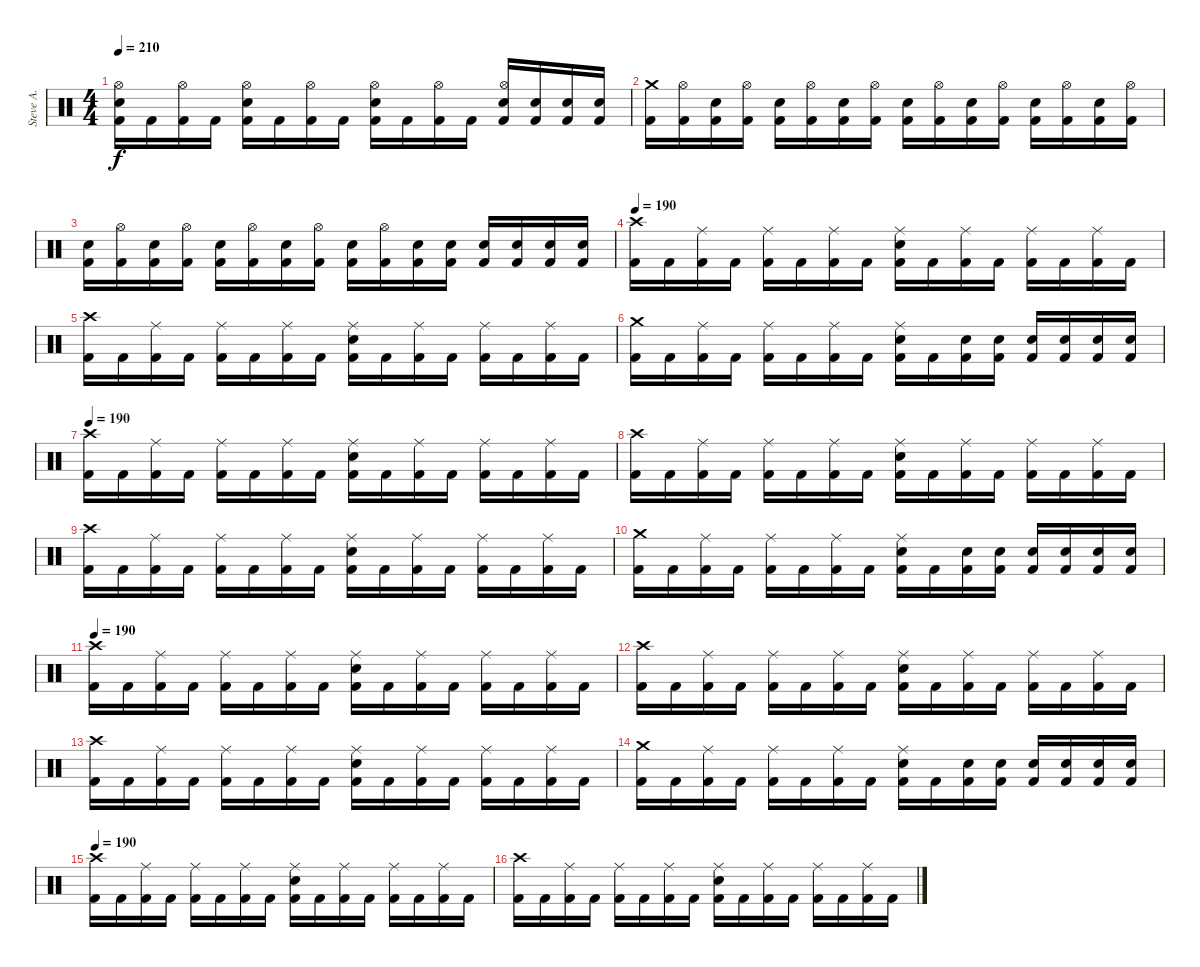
\track ("Steve A." "Steve A.") {instrument percussion}
\staff {score}
\articulation defaults
\ts (4 4)
\tempo 210
\clef neutral
\ks c
("Kick (hit) 2" "Hi-Hat (open)" "Electric Snare (hit)").16{dy f} "Kick (hit) 2".16 ("Kick (hit) 2" "Hi-Hat (open)").16 "Kick (hit) 2".16 ("Kick (hit) 2" "Hi-Hat (open)" "Electric Snare (hit)").16 "Kick (hit) 2".16 ("Kick (hit) 2" "Hi-Hat (open)").16 "Kick (hit) 2".16 ("Kick (hit) 2" "Hi-Hat (open)" "Electric Snare (hit)").16 "Kick (hit) 2".16 ("Kick (hit) 2" "Hi-Hat (open)").16 "Kick (hit) 2".16 ("Kick (hit) 2" "Hi-Hat (open)" "Electric Snare (hit)").16 ("Kick (hit) 2" "Electric Snare (hit)").16 ("Kick (hit) 2" "Electric Snare (hit)").16 ("Kick (hit) 2" "Electric Snare (hit)").16 |
("Kick (hit) 2" "Crash medium (hit)").16 ("Kick (hit) 2" "Hi-Hat (open)").16 ("Kick (hit) 2" "Electric Snare (hit)").16 ("Kick (hit) 2" "Hi-Hat (open)").16 ("Kick (hit) 2" "Electric Snare (hit)").16 ("Kick (hit) 2" "Hi-Hat (open)").16 ("Kick (hit) 2" "Electric Snare (hit)").16 ("Kick (hit) 2" "Hi-Hat (open)").16 ("Kick (hit) 2" "Electric Snare (hit)").16 ("Kick (hit) 2" "Hi-Hat (open)").16 ("Kick (hit) 2" "Electric Snare (hit)").16 ("Kick (hit) 2" "Hi-Hat (open)").16 ("Kick (hit) 2" "Electric Snare (hit)").16 ("Kick (hit) 2" "Hi-Hat (open)").16 ("Kick (hit) 2" "Electric Snare (hit)").16 ("Kick (hit) 2" "Hi-Hat (open)").16 |
("Kick (hit) 2" "Electric Snare (hit)").16 ("Kick (hit) 2" "Hi-Hat (open)").16 ("Kick (hit) 2" "Electric Snare (hit)").16 ("Kick (hit) 2" "Hi-Hat (open)").16 ("Kick (hit) 2" "Electric Snare (hit)").16 ("Kick (hit) 2" "Hi-Hat (open)").16 ("Kick (hit) 2" "Electric Snare (hit)").16 ("Kick (hit) 2" "Hi-Hat (open)").16 ("Kick (hit) 2" "Electric Snare (hit)").16 ("Kick (hit) 2" "Hi-Hat (open)").16 ("Kick (hit) 2" "Electric Snare (hit)").16 ("Kick (hit) 2" "Electric Snare (hit)").16 ("Kick (hit) 2" "Electric Snare (hit)").16 ("Kick (hit) 2" "Electric Snare (hit)").16 ("Kick (hit) 2" "Electric Snare (hit)").16 ("Kick (hit) 2" "Electric Snare (hit)").16 |
\tempo 190
("Kick (hit) 2" "Crash high (hit)").16 "Kick (hit) 2".16 ("Kick (hit) 2" "Ride (middle)").16 "Kick (hit) 2".16 ("Kick (hit) 2" "Ride (middle)").16 "Kick (hit) 2".16 ("Kick (hit) 2" "Ride (middle)").16 "Kick (hit) 2".16 ("Kick (hit) 2" "Ride (middle)" "Electric Snare (hit)").16 "Kick (hit) 2".16 ("Kick (hit) 2" "Ride (middle)").16 "Kick (hit) 2".16 ("Kick (hit) 2" "Ride (middle)").16 "Kick (hit) 2".16 ("Kick (hit) 2" "Ride (middle)").16 "Kick (hit) 2".16 |
("Kick (hit) 2" "Crash high (hit)").16 "Kick (hit) 2".16 ("Kick (hit) 2" "Ride (middle)").16 "Kick (hit) 2".16 ("Kick (hit) 2" "Ride (middle)").16 "Kick (hit) 2".16 ("Kick (hit) 2" "Ride (middle)").16 "Kick (hit) 2".16 ("Kick (hit) 2" "Ride (middle)" "Electric Snare (hit)").16 "Kick (hit) 2".16 ("Kick (hit) 2" "Ride (middle)").16 "Kick (hit) 2".16 ("Kick (hit) 2" "Ride (middle)").16 "Kick (hit) 2".16 ("Kick (hit) 2" "Ride (middle)").16 "Kick (hit) 2".16 |
("Kick (hit) 2" "Crash medium (hit)").16 "Kick (hit) 2".16 ("Kick (hit) 2" "Ride (middle)").16 "Kick (hit) 2".16 ("Kick (hit) 2" "Ride (middle)").16 "Kick (hit) 2".16 ("Kick (hit) 2" "Ride (middle)").16 "Kick (hit) 2".16 ("Kick (hit) 2" "Ride (middle)" "Electric Snare (hit)").16 "Kick (hit) 2".16 ("Kick (hit) 2" "Electric Snare (hit)").16 ("Kick (hit) 2" "Electric Snare (hit)").16 ("Kick (hit) 2" "Electric Snare (hit)").16 ("Kick (hit) 2" "Electric Snare (hit)").16 ("Kick (hit) 2" "Electric Snare (hit)").16 ("Kick (hit) 2" "Electric Snare (hit)").16 |
\tempo 190
("Kick (hit) 2" "Crash high (hit)").16 "Kick (hit) 2".16 ("Kick (hit) 2" "Ride (middle)").16 "Kick (hit) 2".16 ("Kick (hit) 2" "Ride (middle)").16 "Kick (hit) 2".16 ("Kick (hit) 2" "Ride (middle)").16 "Kick (hit) 2".16 ("Kick (hit) 2" "Ride (middle)" "Electric Snare (hit)").16 "Kick (hit) 2".16 ("Kick (hit) 2" "Ride (middle)").16 "Kick (hit) 2".16 ("Kick (hit) 2" "Ride (middle)").16 "Kick (hit) 2".16 ("Kick (hit) 2" "Ride (middle)").16 "Kick (hit) 2".16 |
("Kick (hit) 2" "Crash high (hit)").16 "Kick (hit) 2".16 ("Kick (hit) 2" "Ride (middle)").16 "Kick (hit) 2".16 ("Kick (hit) 2" "Ride (middle)").16 "Kick (hit) 2".16 ("Kick (hit) 2" "Ride (middle)").16 "Kick (hit) 2".16 ("Kick (hit) 2" "Ride (middle)" "Electric Snare (hit)").16 "Kick (hit) 2".16 ("Kick (hit) 2" "Ride (middle)").16 "Kick (hit) 2".16 ("Kick (hit) 2" "Ride (middle)").16 "Kick (hit) 2".16 ("Kick (hit) 2" "Ride (middle)").16 "Kick (hit) 2".16 |
("Kick (hit) 2" "Crash high (hit)").16 "Kick (hit) 2".16 ("Kick (hit) 2" "Ride (middle)").16 "Kick (hit) 2".16 ("Kick (hit) 2" "Ride (middle)").16 "Kick (hit) 2".16 ("Kick (hit) 2" "Ride (middle)").16 "Kick (hit) 2".16 ("Kick (hit) 2" "Ride (middle)" "Electric Snare (hit)").16 "Kick (hit) 2".16 ("Kick (hit) 2" "Ride (middle)").16 "Kick (hit) 2".16 ("Kick (hit) 2" "Ride (middle)").16 "Kick (hit) 2".16 ("Kick (hit) 2" "Ride (middle)").16 "Kick (hit) 2".16 |
("Kick (hit) 2" "Crash medium (hit)").16 "Kick (hit) 2".16 ("Kick (hit) 2" "Ride (middle)").16 "Kick (hit) 2".16 ("Kick (hit) 2" "Ride (middle)").16 "Kick (hit) 2".16 ("Kick (hit) 2" "Ride (middle)").16 "Kick (hit) 2".16 ("Kick (hit) 2" "Ride (middle)" "Electric Snare (hit)").16 "Kick (hit) 2".16 ("Kick (hit) 2" "Electric Snare (hit)").16 ("Kick (hit) 2" "Electric Snare (hit)").16 ("Kick (hit) 2" "Electric Snare (hit)").16 ("Kick (hit) 2" "Electric Snare (hit)").16 ("Kick (hit) 2" "Electric Snare (hit)").16 ("Kick (hit) 2" "Electric Snare (hit)").16 |
\tempo 190
("Kick (hit) 2" "Crash high (hit)").16 "Kick (hit) 2".16 ("Kick (hit) 2" "Ride (middle)").16 "Kick (hit) 2".16 ("Kick (hit) 2" "Ride (middle)").16 "Kick (hit) 2".16 ("Kick (hit) 2" "Ride (middle)").16 "Kick (hit) 2".16 ("Kick (hit) 2" "Ride (middle)" "Electric Snare (hit)").16 "Kick (hit) 2".16 ("Kick (hit) 2" "Ride (middle)").16 "Kick (hit) 2".16 ("Kick (hit) 2" "Ride (middle)").16 "Kick (hit) 2".16 ("Kick (hit) 2" "Ride (middle)").16 "Kick (hit) 2".16 |
("Kick (hit) 2" "Crash high (hit)").16 "Kick (hit) 2".16 ("Kick (hit) 2" "Ride (middle)").16 "Kick (hit) 2".16 ("Kick (hit) 2" "Ride (middle)").16 "Kick (hit) 2".16 ("Kick (hit) 2" "Ride (middle)").16 "Kick (hit) 2".16 ("Kick (hit) 2" "Ride (middle)" "Electric Snare (hit)").16 "Kick (hit) 2".16 ("Kick (hit) 2" "Ride (middle)").16 "Kick (hit) 2".16 ("Kick (hit) 2" "Ride (middle)").16 "Kick (hit) 2".16 ("Kick (hit) 2" "Ride (middle)").16 "Kick (hit) 2".16 |
("Kick (hit) 2" "Crash high (hit)").16 "Kick (hit) 2".16 ("Kick (hit) 2" "Ride (middle)").16 "Kick (hit) 2".16 ("Kick (hit) 2" "Ride (middle)").16 "Kick (hit) 2".16 ("Kick (hit) 2" "Ride (middle)").16 "Kick (hit) 2".16 ("Kick (hit) 2" "Ride (middle)" "Electric Snare (hit)").16 "Kick (hit) 2".16 ("Kick (hit) 2" "Ride (middle)").16 "Kick (hit) 2".16 ("Kick (hit) 2" "Ride (middle)").16 "Kick (hit) 2".16 ("Kick (hit) 2" "Ride (middle)").16 "Kick (hit) 2".16 |
("Kick (hit) 2" "Crash medium (hit)").16 "Kick (hit) 2".16 ("Kick (hit) 2" "Ride (middle)").16 "Kick (hit) 2".16 ("Kick (hit) 2" "Ride (middle)").16 "Kick (hit) 2".16 ("Kick (hit) 2" "Ride (middle)").16 "Kick (hit) 2".16 ("Kick (hit) 2" "Ride (middle)" "Electric Snare (hit)").16 "Kick (hit) 2".16 ("Kick (hit) 2" "Electric Snare (hit)").16 ("Kick (hit) 2" "Electric Snare (hit)").16 ("Kick (hit) 2" "Electric Snare (hit)").16 ("Kick (hit) 2" "Electric Snare (hit)").16 ("Kick (hit) 2" "Electric Snare (hit)").16 ("Kick (hit) 2" "Electric Snare (hit)").16 |
\tempo 190
("Kick (hit) 2" "Crash high (hit)").16 "Kick (hit) 2".16 ("Kick (hit) 2" "Ride (middle)").16 "Kick (hit) 2".16 ("Kick (hit) 2" "Ride (middle)").16 "Kick (hit) 2".16 ("Kick (hit) 2" "Ride (middle)").16 "Kick (hit) 2".16 ("Kick (hit) 2" "Ride (middle)" "Electric Snare (hit)").16 "Kick (hit) 2".16 ("Kick (hit) 2" "Ride (middle)").16 "Kick (hit) 2".16 ("Kick (hit) 2" "Ride (middle)").16 "Kick (hit) 2".16 ("Kick (hit) 2" "Ride (middle)").16 "Kick (hit) 2".16 |
("Kick (hit) 2" "Crash high (hit)").16 "Kick (hit) 2".16 ("Kick (hit) 2" "Ride (middle)").16 "Kick (hit) 2".16 ("Kick (hit) 2" "Ride (middle)").16 "Kick (hit) 2".16 ("Kick (hit) 2" "Ride (middle)").16 "Kick (hit) 2".16 ("Kick (hit) 2" "Ride (middle)" "Electric Snare (hit)").16 "Kick (hit) 2".16 ("Kick (hit) 2" "Ride (middle)").16 "Kick (hit) 2".16 ("Kick (hit) 2" "Ride (middle)").16 "Kick (hit) 2".16 ("Kick (hit) 2" "Ride (middle)").16 "Kick (hit) 2".16
